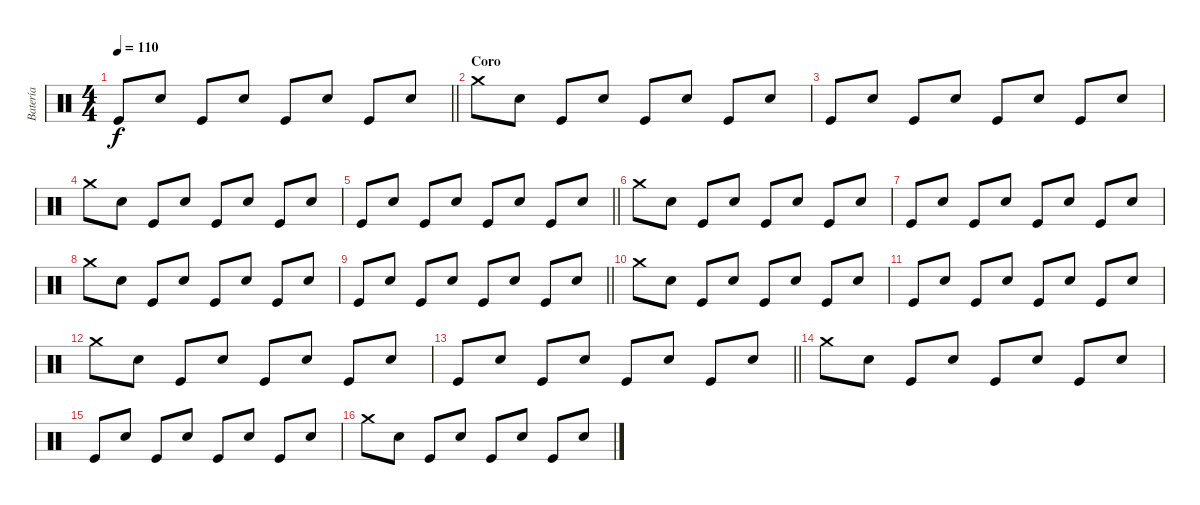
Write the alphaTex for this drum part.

\track ("Batería" "Batería") {instrument percussion}
\staff {score}
\articulation defaults
\ts (4 4)
\tempo 110
\clef neutral
\barLineRight lightlight
\ks c "Kick (hit)".8{dy f} "Electric Snare (hit)".8 "Kick (hit)".8 "Electric Snare (hit)".8 "Kick (hit)".8 "Electric Snare (hit)".8 "Kick (hit)".8 "Electric Snare (hit)".8
|
\section ("" "Coro")
"Crash medium (hit)".8 "Electric Snare (hit)".8 "Kick (hit)".8 "Electric Snare (hit)".8 "Kick (hit)".8 "Electric Snare (hit)".8 "Kick (hit)".8 "Electric Snare (hit)".8 |
"Kick (hit)".8 "Electric Snare (hit)".8 "Kick (hit)".8 "Electric Snare (hit)".8 "Kick (hit)".8 "Electric Snare (hit)".8 "Kick (hit)".8 "Electric Snare (hit)".8 |
"Crash medium (hit)".8 "Electric Snare (hit)".8 "Kick (hit)".8 "Electric Snare (hit)".8 "Kick (hit)".8 "Electric Snare (hit)".8 "Kick (hit)".8 "Electric Snare (hit)".8 |
\barLineRight lightlight "Kick (hit)".8 "Electric Snare (hit)".8 "Kick (hit)".8 "Electric Snare (hit)".8 "Kick (hit)".8 "Electric Snare (hit)".8 "Kick (hit)".8 "Electric Snare (hit)".8
|
\section ("" "")
"Crash medium (hit)".8 "Electric Snare (hit)".8 "Kick (hit)".8 "Electric Snare (hit)".8 "Kick (hit)".8 "Electric Snare (hit)".8 "Kick (hit)".8 "Electric Snare (hit)".8 |
"Kick (hit)".8 "Electric Snare (hit)".8 "Kick (hit)".8 "Electric Snare (hit)".8 "Kick (hit)".8 "Electric Snare (hit)".8 "Kick (hit)".8 "Electric Snare (hit)".8 |
"Crash medium (hit)".8 "Electric Snare (hit)".8 "Kick (hit)".8 "Electric Snare (hit)".8 "Kick (hit)".8 "Electric Snare (hit)".8 "Kick (hit)".8 "Electric Snare (hit)".8 |
\barLineRight lightlight "Kick (hit)".8 "Electric Snare (hit)".8 "Kick (hit)".8 "Electric Snare (hit)".8 "Kick (hit)".8 "Electric Snare (hit)".8 "Kick (hit)".8 "Electric Snare (hit)".8
|
\section ("" "")
"Crash medium (hit)".8 "Electric Snare (hit)".8 "Kick (hit)".8 "Electric Snare (hit)".8 "Kick (hit)".8 "Electric Snare (hit)".8 "Kick (hit)".8 "Electric Snare (hit)".8 |
"Kick (hit)".8 "Electric Snare (hit)".8 "Kick (hit)".8 "Electric Snare (hit)".8 "Kick (hit)".8 "Electric Snare (hit)".8 "Kick (hit)".8 "Electric Snare (hit)".8 |
"Crash medium (hit)".8 "Electric Snare (hit)".8 "Kick (hit)".8 "Electric Snare (hit)".8 "Kick (hit)".8 "Electric Snare (hit)".8 "Kick (hit)".8 "Electric Snare (hit)".8 |
\barLineRight lightlight "Kick (hit)".8 "Electric Snare (hit)".8 "Kick (hit)".8 "Electric Snare (hit)".8 "Kick (hit)".8 "Electric Snare (hit)".8 "Kick (hit)".8 "Electric Snare (hit)".8
|
\section ("" "")
"Crash medium (hit)".8 "Electric Snare (hit)".8 "Kick (hit)".8 "Electric Snare (hit)".8 "Kick (hit)".8 "Electric Snare (hit)".8 "Kick (hit)".8 "Electric Snare (hit)".8 |
"Kick (hit)".8 "Electric Snare (hit)".8 "Kick (hit)".8 "Electric Snare (hit)".8 "Kick (hit)".8 "Electric Snare (hit)".8 "Kick (hit)".8 "Electric Snare (hit)".8 |
"Crash medium (hit)".8 "Electric Snare (hit)".8 "Kick (hit)".8 "Electric Snare (hit)".8 "Kick (hit)".8 "Electric Snare (hit)".8 "Kick (hit)".8 "Electric Snare (hit)".8
